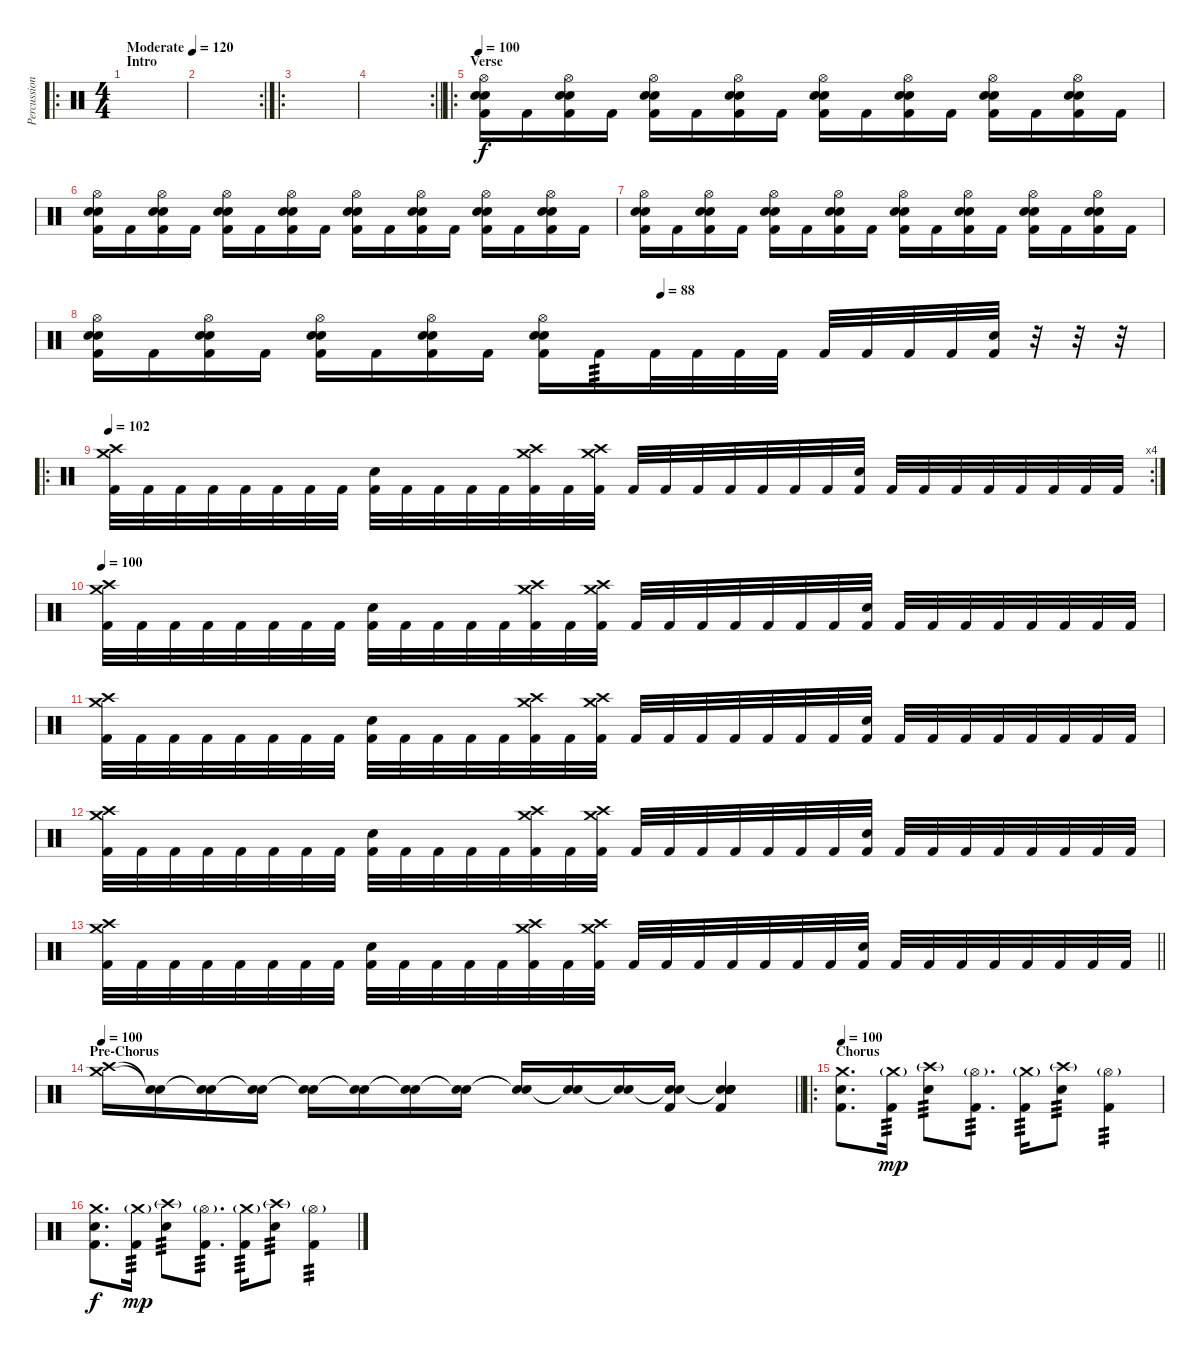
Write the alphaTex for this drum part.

\track ("Percussions" "Percussion") {instrument percussion}
\staff {score}
\articulation defaults
\ro
\ts (4 4)
\section ("" "Intro")
\tempo (120 "Moderate")
\tempo 100
\tempo (120 "Moderate")
\clef neutral
\ks c
|
\rc 2
|
\ro
|
\rc 2
\barLineRight lightlight
|
\ro
\section ("" "Verse")
\tempo 100
("Hi-Hat (open)" "Snare (hit) 2" "Electric Snare (hit)" "Kick (hit) 2").16 "Kick (hit) 2".16 ("Hi-Hat (open)" "Snare (hit) 2" "Electric Snare (hit)" "Kick (hit) 2").16 "Kick (hit) 2".16 ("Hi-Hat (open)" "Snare (hit) 2" "Electric Snare (hit)" "Kick (hit) 2").16 "Kick (hit) 2".16 ("Hi-Hat (open)" "Snare (hit) 2" "Electric Snare (hit)" "Kick (hit) 2").16 "Kick (hit) 2".16 ("Hi-Hat (open)" "Snare (hit) 2" "Electric Snare (hit)" "Kick (hit) 2").16 "Kick (hit) 2".16 ("Hi-Hat (open)" "Snare (hit) 2" "Electric Snare (hit)" "Kick (hit) 2").16 "Kick (hit) 2".16 ("Hi-Hat (open)" "Snare (hit) 2" "Electric Snare (hit)" "Kick (hit) 2").16 "Kick (hit) 2".16 ("Hi-Hat (open)" "Snare (hit) 2" "Electric Snare (hit)" "Kick (hit) 2").16 "Kick (hit) 2".16 |
("Hi-Hat (open)" "Snare (hit) 2" "Electric Snare (hit)" "Kick (hit) 2").16 "Kick (hit) 2".16 ("Hi-Hat (open)" "Snare (hit) 2" "Electric Snare (hit)" "Kick (hit) 2").16 "Kick (hit) 2".16 ("Hi-Hat (open)" "Snare (hit) 2" "Electric Snare (hit)" "Kick (hit) 2").16 "Kick (hit) 2".16 ("Hi-Hat (open)" "Snare (hit) 2" "Electric Snare (hit)" "Kick (hit) 2").16 "Kick (hit) 2".16 ("Hi-Hat (open)" "Snare (hit) 2" "Electric Snare (hit)" "Kick (hit) 2").16 "Kick (hit) 2".16 ("Hi-Hat (open)" "Snare (hit) 2" "Electric Snare (hit)" "Kick (hit) 2").16 "Kick (hit) 2".16 ("Hi-Hat (open)" "Snare (hit) 2" "Electric Snare (hit)" "Kick (hit) 2").16 "Kick (hit) 2".16 ("Hi-Hat (open)" "Snare (hit) 2" "Electric Snare (hit)" "Kick (hit) 2").16 "Kick (hit) 2".16 |
("Hi-Hat (open)" "Snare (hit) 2" "Electric Snare (hit)" "Kick (hit) 2").16 "Kick (hit) 2".16 ("Hi-Hat (open)" "Snare (hit) 2" "Electric Snare (hit)" "Kick (hit) 2").16 "Kick (hit) 2".16 ("Hi-Hat (open)" "Snare (hit) 2" "Electric Snare (hit)" "Kick (hit) 2").16 "Kick (hit) 2".16 ("Hi-Hat (open)" "Snare (hit) 2" "Electric Snare (hit)" "Kick (hit) 2").16 "Kick (hit) 2".16 ("Hi-Hat (open)" "Snare (hit) 2" "Electric Snare (hit)" "Kick (hit) 2").16 "Kick (hit) 2".16 ("Hi-Hat (open)" "Snare (hit) 2" "Electric Snare (hit)" "Kick (hit) 2").16 "Kick (hit) 2".16 ("Hi-Hat (open)" "Snare (hit) 2" "Electric Snare (hit)" "Kick (hit) 2").16 "Kick (hit) 2".16 ("Hi-Hat (open)" "Snare (hit) 2" "Electric Snare (hit)" "Kick (hit) 2").16 "Kick (hit) 2".16 |
\tempo (88 0.53125)
("Hi-Hat (open)" "Snare (hit) 2" "Electric Snare (hit)" "Kick (hit) 2").16 "Kick (hit) 2".16 ("Hi-Hat (open)" "Snare (hit) 2" "Electric Snare (hit)" "Kick (hit) 2").16 "Kick (hit) 2".16 ("Hi-Hat (open)" "Snare (hit) 2" "Electric Snare (hit)" "Kick (hit) 2").16 "Kick (hit) 2".16 ("Hi-Hat (open)" "Snare (hit) 2" "Electric Snare (hit)" "Kick (hit) 2").16 "Kick (hit) 2".16 ("Hi-Hat (open)" "Snare (hit) 2" "Electric Snare (hit)" "Kick (hit) 2").16 "Kick (hit) 2".16{tp 3} "Kick (hit) 2".32 "Kick (hit) 2".32 "Kick (hit) 2".32 "Kick (hit) 2".32 "Kick (hit) 2".32 "Kick (hit) 2".32 "Kick (hit) 2".32 "Kick (hit) 2".32 ("Electric Snare (hit)" "Kick (hit) 2").32 r.32 r.32 r.32 |
\ro
\rc 4
\tempo 102
("Crash medium (hit)" "Crash high (hit)" "Kick (hit) 2").32 "Kick (hit) 2".32 "Kick (hit) 2".32 "Kick (hit) 2".32 "Kick (hit) 2".32 "Kick (hit) 2".32 "Kick (hit) 2".32 "Kick (hit) 2".32 ("Electric Snare (hit)" "Kick (hit) 2").32 "Kick (hit) 2".32 "Kick (hit) 2".32 "Kick (hit) 2".32 "Kick (hit) 2".32 ("Crash medium (hit)" "Crash high (hit)" "Kick (hit) 2").32 "Kick (hit) 2".32 ("Crash medium (hit)" "Crash high (hit)" "Kick (hit) 2").32 "Kick (hit) 2".32 "Kick (hit) 2".32 "Kick (hit) 2".32 "Kick (hit) 2".32 "Kick (hit) 2".32 "Kick (hit) 2".32 "Kick (hit) 2".32 ("Electric Snare (hit)" "Kick (hit) 2").32 "Kick (hit) 2".32 "Kick (hit) 2".32 "Kick (hit) 2".32 "Kick (hit) 2".32 "Kick (hit) 2".32 "Kick (hit) 2".32 "Kick (hit) 2".32 "Kick (hit) 2".32 |
\tempo 100
("Crash medium (hit)" "Crash high (hit)" "Kick (hit) 2").32 "Kick (hit) 2".32 "Kick (hit) 2".32 "Kick (hit) 2".32 "Kick (hit) 2".32 "Kick (hit) 2".32 "Kick (hit) 2".32 "Kick (hit) 2".32 ("Electric Snare (hit)" "Kick (hit) 2").32 "Kick (hit) 2".32 "Kick (hit) 2".32 "Kick (hit) 2".32 "Kick (hit) 2".32 ("Crash medium (hit)" "Crash high (hit)" "Kick (hit) 2").32 "Kick (hit) 2".32 ("Crash medium (hit)" "Crash high (hit)" "Kick (hit) 2").32 "Kick (hit) 2".32 "Kick (hit) 2".32 "Kick (hit) 2".32 "Kick (hit) 2".32 "Kick (hit) 2".32 "Kick (hit) 2".32 "Kick (hit) 2".32 ("Electric Snare (hit)" "Kick (hit) 2").32 "Kick (hit) 2".32 "Kick (hit) 2".32 "Kick (hit) 2".32 "Kick (hit) 2".32 "Kick (hit) 2".32 "Kick (hit) 2".32 "Kick (hit) 2".32 "Kick (hit) 2".32 |
("Crash medium (hit)" "Crash high (hit)" "Kick (hit) 2").32 "Kick (hit) 2".32 "Kick (hit) 2".32 "Kick (hit) 2".32 "Kick (hit) 2".32 "Kick (hit) 2".32 "Kick (hit) 2".32 "Kick (hit) 2".32 ("Electric Snare (hit)" "Kick (hit) 2").32 "Kick (hit) 2".32 "Kick (hit) 2".32 "Kick (hit) 2".32 "Kick (hit) 2".32 ("Crash medium (hit)" "Crash high (hit)" "Kick (hit) 2").32 "Kick (hit) 2".32 ("Crash medium (hit)" "Crash high (hit)" "Kick (hit) 2").32 "Kick (hit) 2".32 "Kick (hit) 2".32 "Kick (hit) 2".32 "Kick (hit) 2".32 "Kick (hit) 2".32 "Kick (hit) 2".32 "Kick (hit) 2".32 ("Electric Snare (hit)" "Kick (hit) 2").32 "Kick (hit) 2".32 "Kick (hit) 2".32 "Kick (hit) 2".32 "Kick (hit) 2".32 "Kick (hit) 2".32 "Kick (hit) 2".32 "Kick (hit) 2".32 "Kick (hit) 2".32 |
("Crash medium (hit)" "Crash high (hit)" "Kick (hit) 2").32 "Kick (hit) 2".32 "Kick (hit) 2".32 "Kick (hit) 2".32 "Kick (hit) 2".32 "Kick (hit) 2".32 "Kick (hit) 2".32 "Kick (hit) 2".32 ("Electric Snare (hit)" "Kick (hit) 2").32 "Kick (hit) 2".32 "Kick (hit) 2".32 "Kick (hit) 2".32 "Kick (hit) 2".32 ("Crash medium (hit)" "Crash high (hit)" "Kick (hit) 2").32 "Kick (hit) 2".32 ("Crash medium (hit)" "Crash high (hit)" "Kick (hit) 2").32 "Kick (hit) 2".32 "Kick (hit) 2".32 "Kick (hit) 2".32 "Kick (hit) 2".32 "Kick (hit) 2".32 "Kick (hit) 2".32 "Kick (hit) 2".32 ("Electric Snare (hit)" "Kick (hit) 2").32 "Kick (hit) 2".32 "Kick (hit) 2".32 "Kick (hit) 2".32 "Kick (hit) 2".32 "Kick (hit) 2".32 "Kick (hit) 2".32 "Kick (hit) 2".32 "Kick (hit) 2".32 |
\barLineRight lightlight
("Crash medium (hit)" "Crash high (hit)" "Kick (hit) 2").32 "Kick (hit) 2".32 "Kick (hit) 2".32 "Kick (hit) 2".32 "Kick (hit) 2".32 "Kick (hit) 2".32 "Kick (hit) 2".32 "Kick (hit) 2".32 ("Electric Snare (hit)" "Kick (hit) 2").32 "Kick (hit) 2".32 "Kick (hit) 2".32 "Kick (hit) 2".32 "Kick (hit) 2".32 ("Crash medium (hit)" "Crash high (hit)" "Kick (hit) 2").32 "Kick (hit) 2".32 ("Crash medium (hit)" "Crash high (hit)" "Kick (hit) 2").32 "Kick (hit) 2".32 "Kick (hit) 2".32 "Kick (hit) 2".32 "Kick (hit) 2".32 "Kick (hit) 2".32 "Kick (hit) 2".32 "Kick (hit) 2".32 ("Electric Snare (hit)" "Kick (hit) 2").32 "Kick (hit) 2".32 "Kick (hit) 2".32 "Kick (hit) 2".32 "Kick (hit) 2".32 "Kick (hit) 2".32 "Kick (hit) 2".32 "Kick (hit) 2".32 "Kick (hit) 2".32 |
\section ("" "Pre-Chorus")
\tempo 100
\barLineRight lightlight
("Crash medium (hit)" "Crash high (hit)").16 ("Snare (hit)"{t} "Snare (hit)"{t}).16 ("Snare (hit)"{t} "Snare (hit)"{t}).16 ("Snare (hit)"{t} "Snare (hit)"{t}).16 ("Snare (hit)"{t} "Snare (hit)"{t}).16 ("Snare (hit)"{t} "Snare (hit)"{t}).16 ("Snare (hit)"{t} "Snare (hit)"{t}).16 ("Snare (hit)"{t} "Snare (hit)"{t}).16 ("Snare (hit)"{t} "Snare (hit)"{t}).16 ("Snare (hit)"{t} "Snare (hit)"{t}).16 ("Snare (hit)"{t} "Snare (hit)"{t}).16 ("Snare (hit)"{t} "Snare (hit)"{t} "Kick (hit) 2").16 ("Snare (hit)"{t} "Snare (hit)"{t} "Snare (hit) 2" "Electric Snare (hit)" "Kick (hit) 2").4 |
\ro
\section ("" "Chorus")
\tempo 100
("Crash medium (hit)" "Electric Snare (hit)" "Kick (hit) 2").8{d} ("Crash medium (hit)"{g} "Kick (hit) 2").16{tp 3 dy mp} ("Crash high (hit)"{g} "Electric Snare (hit)").8{tp 3} ("Hi-Hat (open)"{g} "Kick (hit) 2").8{d tp 3} ("Crash medium (hit)"{g} "Kick (hit) 2").16{tp 3} ("Crash high (hit)"{g} "Electric Snare (hit)").8{tp 3} ("Hi-Hat (open)"{g} "Kick (hit) 2").4{tp 3} |
("Crash medium (hit)" "Electric Snare (hit)" "Kick (hit) 2").8{d dy f} ("Crash medium (hit)"{g} "Kick (hit) 2").16{tp 3 dy mp} ("Crash high (hit)"{g} "Electric Snare (hit)").8{tp 3} ("Hi-Hat (open)"{g} "Kick (hit) 2").8{d tp 3} ("Crash medium (hit)"{g} "Kick (hit) 2").16{tp 3} ("Crash high (hit)"{g} "Electric Snare (hit)").8{tp 3} ("Hi-Hat (open)"{g} "Kick (hit) 2").4{tp 3}
